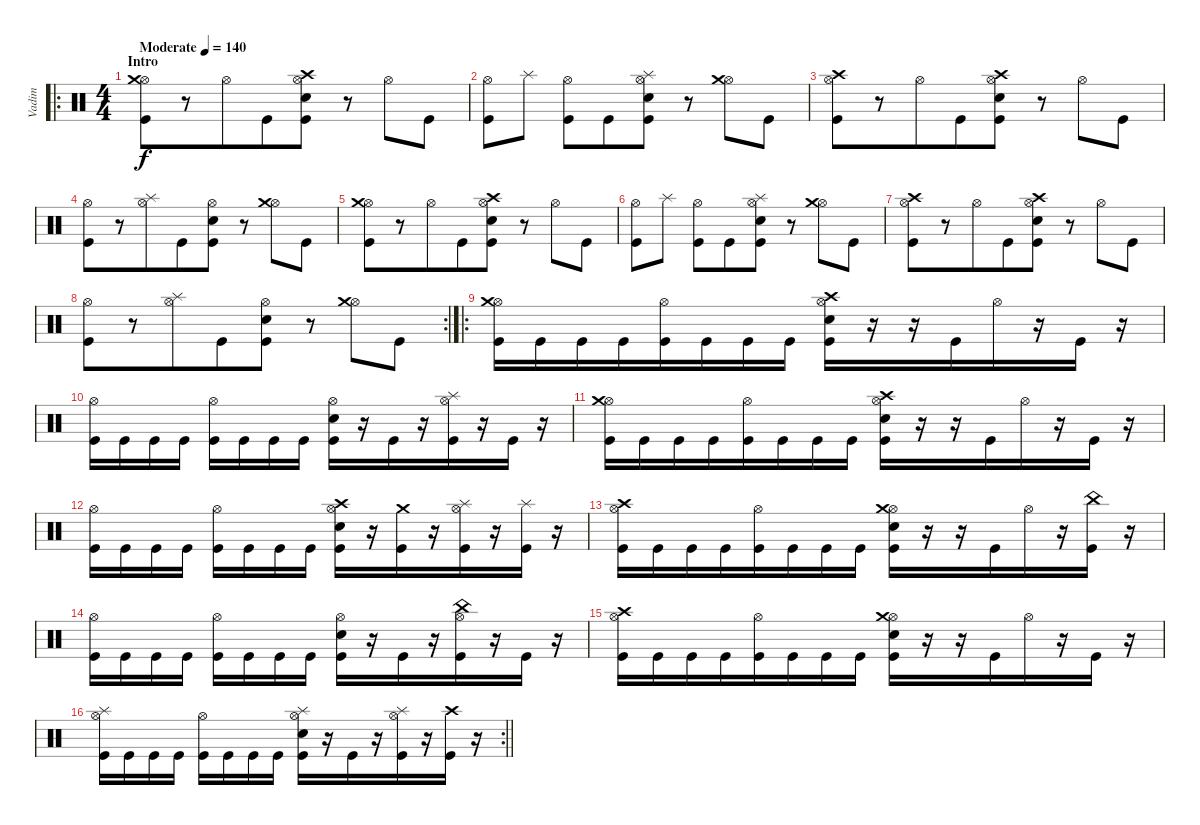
\track ("Vadim" "Vadim") {instrument percussion}
\staff {score}
\articulation defaults
\ro
\ts (4 4)
\section ("" "Intro")
\tempo (140 "Moderate")
\clef neutral
\ks c
("Hi-Hat (open)" "Crash medium (hit)" "Kick (hit)").8{dy f beam merge} r.8 "Hi-Hat (open)".8{beam merge} "Kick (hit)".8{beam merge} ("Hi-Hat (open)" "Crash high (hit)" "Electric Snare (hit)" "Kick (hit)").8 r.8 "Hi-Hat (open)".8 "Kick (hit)".8 |
("Hi-Hat (open)" "Kick (hit)").8{beam merge} "Splash (hit)".8 ("Hi-Hat (open)" "Kick (hit)").8{beam merge} "Kick (hit)".8{beam merge} ("Hi-Hat (open)" "Splash (hit)" "Electric Snare (hit)" "Kick (hit)").8 r.8 ("Hi-Hat (open)" "Crash medium (hit)").8 "Kick (hit)".8 |
("Hi-Hat (open)" "Crash high (hit)" "Kick (hit)").8{beam merge} r.8 "Hi-Hat (open)".8{beam merge} "Kick (hit)".8{beam merge} ("Hi-Hat (open)" "Crash high (hit)" "Electric Snare (hit)" "Kick (hit)").8 r.8 "Hi-Hat (open)".8 "Kick (hit)".8 |
("Hi-Hat (open)" "Kick (hit)").8{beam merge} r.8 ("Hi-Hat (open)" "Splash (hit)").8{beam merge} "Kick (hit)".8{beam merge} ("Hi-Hat (open)" "Electric Snare (hit)" "Kick (hit)").8 r.8 ("Hi-Hat (open)" "Crash medium (hit)").8 "Kick (hit)".8 |
("Hi-Hat (open)" "Crash medium (hit)" "Kick (hit)").8{beam merge} r.8 "Hi-Hat (open)".8{beam merge} "Kick (hit)".8{beam merge} ("Hi-Hat (open)" "Crash high (hit)" "Electric Snare (hit)" "Kick (hit)").8 r.8 "Hi-Hat (open)".8 "Kick (hit)".8 |
("Hi-Hat (open)" "Kick (hit)").8{beam merge} "Splash (hit)".8 ("Hi-Hat (open)" "Kick (hit)").8{beam merge} "Kick (hit)".8{beam merge} ("Hi-Hat (open)" "Splash (hit)" "Electric Snare (hit)" "Kick (hit)").8 r.8 ("Hi-Hat (open)" "Crash medium (hit)").8 "Kick (hit)".8 |
("Hi-Hat (open)" "Crash high (hit)" "Kick (hit)").8{beam merge} r.8 "Hi-Hat (open)".8{beam merge} "Kick (hit)".8{beam merge} ("Hi-Hat (open)" "Crash high (hit)" "Electric Snare (hit)" "Kick (hit)").8 r.8 "Hi-Hat (open)".8 "Kick (hit)".8 |
\rc 2
("Hi-Hat (open)" "Kick (hit)").8{beam merge} r.8 ("Hi-Hat (open)" "Splash (hit)").8{beam merge} "Kick (hit)".8{beam merge} ("Hi-Hat (open)" "Electric Snare (hit)" "Kick (hit)").8 r.8 ("Hi-Hat (open)" "Crash medium (hit)").8 "Kick (hit)".8 |
\ro
("Hi-Hat (open)" "Crash medium (hit)" "Kick (hit)").16 "Kick (hit)".16 "Kick (hit)".16{beam merge} "Kick (hit)".16{beam merge} ("Hi-Hat (open)" "Kick (hit)").16 "Kick (hit)".16 "Kick (hit)".16 "Kick (hit)".16 ("Hi-Hat (open)" "Crash high (hit)" "Electric Snare (hit)" "Kick (hit)").16 r.16 r.16 "Kick (hit)".16{beam merge} "Hi-Hat (open)".16{beam merge} r.16 "Kick (hit)".16{beam merge} r.16 |
("Hi-Hat (open)" "Kick (hit)").16 "Kick (hit)".16{beam merge} "Kick (hit)".16 "Kick (hit)".16 ("Hi-Hat (open)" "Kick (hit)").16 "Kick (hit)".16 "Kick (hit)".16{beam merge} "Kick (hit)".16 ("Hi-Hat (open)" "Electric Snare (hit)" "Kick (hit)").16{beam merge} r.16 "Kick (hit)".16{beam merge} r.16 ("Hi-Hat (open)" "Splash (hit)" "Kick (hit)").16{beam merge} r.16 "Kick (hit)".16{beam merge} r.16 |
("Hi-Hat (open)" "Crash medium (hit)" "Kick (hit)").16 "Kick (hit)".16 "Kick (hit)".16{beam merge} "Kick (hit)".16{beam merge} ("Hi-Hat (open)" "Kick (hit)").16 "Kick (hit)".16 "Kick (hit)".16 "Kick (hit)".16 ("Hi-Hat (open)" "Crash high (hit)" "Electric Snare (hit)" "Kick (hit)").16 r.16 r.16 "Kick (hit)".16{beam merge} "Hi-Hat (open)".16{beam merge} r.16 "Kick (hit)".16{beam merge} r.16 |
("Hi-Hat (open)" "Kick (hit)").16 "Kick (hit)".16{beam merge} "Kick (hit)".16 "Kick (hit)".16 ("Hi-Hat (open)" "Kick (hit)").16 "Kick (hit)".16 "Kick (hit)".16{beam merge} "Kick (hit)".16 ("Hi-Hat (open)" "Crash high (hit)" "Electric Snare (hit)" "Kick (hit)").16{beam merge} r.16 ("Crash medium (hit)" "Kick (hit)").16{beam merge} r.16 ("Hi-Hat (open)" "Splash (hit)" "Kick (hit)").16{beam merge} r.16 ("Splash (hit)" "Kick (hit)").16{beam merge} r.16 |
("Hi-Hat (open)" "Crash high (hit)" "Kick (hit)").16 "Kick (hit)".16 "Kick (hit)".16{beam merge} "Kick (hit)".16{beam merge} ("Hi-Hat (open)" "Kick (hit)").16 "Kick (hit)".16 "Kick (hit)".16 "Kick (hit)".16 ("Hi-Hat (open)" "Crash medium (hit)" "Electric Snare (hit)" "Kick (hit)").16 r.16 r.16 "Kick (hit)".16{beam merge} "Hi-Hat (open)".16{beam merge} r.16 ("China (hit)" "Kick (hit)").16{beam merge} r.16 |
("Hi-Hat (open)" "Kick (hit)").16 "Kick (hit)".16{beam merge} "Kick (hit)".16 "Kick (hit)".16 ("Hi-Hat (open)" "Kick (hit)").16 "Kick (hit)".16 "Kick (hit)".16{beam merge} "Kick (hit)".16 ("Hi-Hat (open)" "Electric Snare (hit)" "Kick (hit)").16{beam merge} r.16 "Kick (hit)".16{beam merge} r.16 ("Hi-Hat (open)" "China (hit)" "Kick (hit)").16{beam merge} r.16 "Kick (hit)".16{beam merge} r.16 |
("Hi-Hat (open)" "Crash high (hit)" "Kick (hit)").16 "Kick (hit)".16 "Kick (hit)".16{beam merge} "Kick (hit)".16{beam merge} ("Hi-Hat (open)" "Kick (hit)").16 "Kick (hit)".16 "Kick (hit)".16 "Kick (hit)".16 ("Hi-Hat (open)" "Crash medium (hit)" "Electric Snare (hit)" "Kick (hit)").16 r.16 r.16 "Kick (hit)".16{beam merge} "Hi-Hat (open)".16{beam merge} r.16 "Kick (hit)".16{beam merge} r.16 |
\rc 2
\barLineRight lightlight
("Hi-Hat (open)" "Splash (hit)" "Kick (hit)").16 "Kick (hit)".16{beam merge} "Kick (hit)".16 "Kick (hit)".16 ("Hi-Hat (open)" "Kick (hit)").16 "Kick (hit)".16 "Kick (hit)".16{beam merge} "Kick (hit)".16 ("Hi-Hat (open)" "Splash (hit)" "Electric Snare (hit)" "Kick (hit)").16{beam merge} r.16 "Kick (hit)".16{beam merge} r.16 ("Hi-Hat (open)" "Splash (hit)" "Kick (hit)").16{beam merge} r.16 ("Crash high (hit)" "Kick (hit)").16{beam merge} r.16
